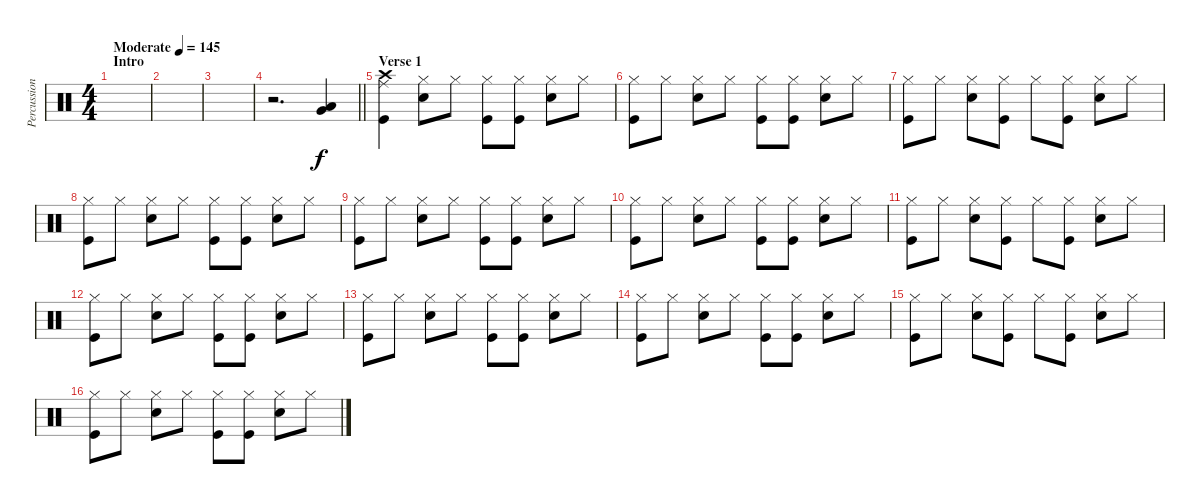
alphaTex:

\track ("Percussion" "Percussion") {instrument percussion}
\staff {score}
\articulation defaults
\ts (4 4)
\section ("" "Intro")
\tempo (145 "Moderate")
\clef neutral
\ks c
|
|
|
\barLineRight lightlight
r.2{d} ("Low Tom (hit)" "Very Low Tom (hit)").4 |
\section ("" "Verse 1")
("Ride (middle)" "Kick (hit)" "Crash high (hit)").4 ("Hi-Hat (closed)" "Snare (hit) 2").8 "Hi-Hat (closed)".8 ("Kick (hit)" "Hi-Hat (closed)").8 ("Kick (hit)" "Hi-Hat (closed)").8 ("Hi-Hat (closed)" "Snare (hit) 2").8 "Hi-Hat (closed)".8 |
("Kick (hit)" "Hi-Hat (closed)").8 "Hi-Hat (closed)".8 ("Hi-Hat (closed)" "Snare (hit) 2").8 "Hi-Hat (closed)".8 ("Kick (hit)" "Hi-Hat (closed)").8 ("Kick (hit)" "Hi-Hat (closed)").8 ("Hi-Hat (closed)" "Snare (hit) 2").8 "Hi-Hat (closed)".8 |
("Kick (hit)" "Hi-Hat (closed)").8 "Hi-Hat (closed)".8 ("Hi-Hat (closed)" "Snare (hit) 2").8 ("Kick (hit)" "Hi-Hat (closed)").8 "Hi-Hat (closed)".8 ("Kick (hit)" "Hi-Hat (closed)").8 ("Hi-Hat (closed)" "Snare (hit) 2").8 "Hi-Hat (closed)".8 |
("Kick (hit)" "Hi-Hat (closed)").8 "Hi-Hat (closed)".8 ("Hi-Hat (closed)" "Snare (hit) 2").8 "Hi-Hat (closed)".8 ("Kick (hit)" "Hi-Hat (closed)").8 ("Kick (hit)" "Hi-Hat (closed)").8 ("Hi-Hat (closed)" "Snare (hit) 2").8 "Hi-Hat (closed)".8 |
("Kick (hit)" "Hi-Hat (closed)").8 "Hi-Hat (closed)".8 ("Hi-Hat (closed)" "Snare (hit) 2").8 "Hi-Hat (closed)".8 ("Kick (hit)" "Hi-Hat (closed)").8 ("Kick (hit)" "Hi-Hat (closed)").8 ("Hi-Hat (closed)" "Snare (hit) 2").8 "Hi-Hat (closed)".8 |
("Kick (hit)" "Hi-Hat (closed)").8 "Hi-Hat (closed)".8 ("Hi-Hat (closed)" "Snare (hit) 2").8 "Hi-Hat (closed)".8 ("Kick (hit)" "Hi-Hat (closed)").8 ("Kick (hit)" "Hi-Hat (closed)").8 ("Hi-Hat (closed)" "Snare (hit) 2").8 "Hi-Hat (closed)".8 |
("Kick (hit)" "Hi-Hat (closed)").8 "Hi-Hat (closed)".8 ("Hi-Hat (closed)" "Snare (hit) 2").8 ("Kick (hit)" "Hi-Hat (closed)").8 "Hi-Hat (closed)".8 ("Kick (hit)" "Hi-Hat (closed)").8 ("Hi-Hat (closed)" "Snare (hit) 2").8 "Hi-Hat (closed)".8 |
("Kick (hit)" "Hi-Hat (closed)").8 "Hi-Hat (closed)".8 ("Hi-Hat (closed)" "Snare (hit) 2").8 "Hi-Hat (closed)".8 ("Kick (hit)" "Hi-Hat (closed)").8 ("Kick (hit)" "Hi-Hat (closed)").8 ("Hi-Hat (closed)" "Snare (hit) 2").8 "Hi-Hat (closed)".8 |
("Kick (hit)" "Hi-Hat (closed)").8 "Hi-Hat (closed)".8 ("Hi-Hat (closed)" "Snare (hit) 2").8 "Hi-Hat (closed)".8 ("Kick (hit)" "Hi-Hat (closed)").8 ("Kick (hit)" "Hi-Hat (closed)").8 ("Hi-Hat (closed)" "Snare (hit) 2").8 "Hi-Hat (closed)".8 |
("Kick (hit)" "Hi-Hat (closed)").8 "Hi-Hat (closed)".8 ("Hi-Hat (closed)" "Snare (hit) 2").8 "Hi-Hat (closed)".8 ("Kick (hit)" "Hi-Hat (closed)").8 ("Kick (hit)" "Hi-Hat (closed)").8 ("Hi-Hat (closed)" "Snare (hit) 2").8 "Hi-Hat (closed)".8 |
("Kick (hit)" "Hi-Hat (closed)").8 "Hi-Hat (closed)".8 ("Hi-Hat (closed)" "Snare (hit) 2").8 ("Kick (hit)" "Hi-Hat (closed)").8 "Hi-Hat (closed)".8 ("Kick (hit)" "Hi-Hat (closed)").8 ("Hi-Hat (closed)" "Snare (hit) 2").8 "Hi-Hat (closed)".8 |
("Kick (hit)" "Hi-Hat (closed)").8 "Hi-Hat (closed)".8 ("Hi-Hat (closed)" "Snare (hit) 2").8 "Hi-Hat (closed)".8 ("Kick (hit)" "Hi-Hat (closed)").8 ("Kick (hit)" "Hi-Hat (closed)").8 ("Hi-Hat (closed)" "Snare (hit) 2").8 "Hi-Hat (closed)".8
